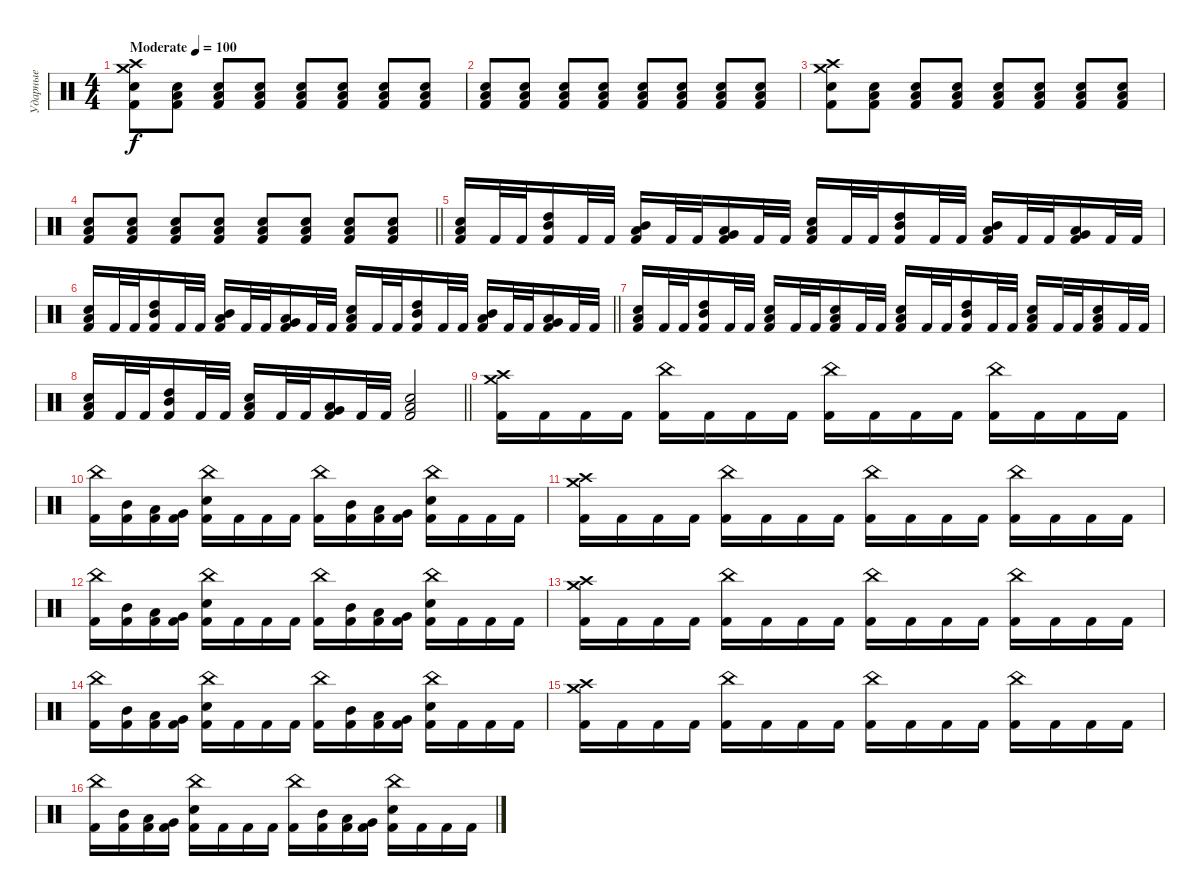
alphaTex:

\track ("Ударные" "Ударные") {instrument percussion}
\staff {score}
\articulation defaults
\ts (4 4)
\tempo (100 "Moderate")
\clef neutral
\ks c
("Crash medium (hit)" "Crash high (hit)" "Kick (hit) 2" "Electric Snare (hit)").8{dy f} ("Kick (hit) 2" "Low Floor Tom (hit)" "Electric Snare (hit)").8 ("Kick (hit) 2" "Low Floor Tom (hit)" "Electric Snare (hit)").8 ("Kick (hit) 2" "Low Floor Tom (hit)" "Electric Snare (hit)").8 ("Kick (hit) 2" "Low Floor Tom (hit)" "Electric Snare (hit)").8 ("Kick (hit) 2" "Low Floor Tom (hit)" "Electric Snare (hit)").8 ("Kick (hit) 2" "Low Floor Tom (hit)" "Electric Snare (hit)").8 ("Kick (hit) 2" "Low Floor Tom (hit)" "Electric Snare (hit)").8 |
("Kick (hit) 2" "Low Floor Tom (hit)" "Electric Snare (hit)").8 ("Kick (hit) 2" "Low Floor Tom (hit)" "Electric Snare (hit)").8 ("Kick (hit) 2" "Low Floor Tom (hit)" "Electric Snare (hit)").8 ("Kick (hit) 2" "Low Floor Tom (hit)" "Electric Snare (hit)").8 ("Kick (hit) 2" "Low Floor Tom (hit)" "Electric Snare (hit)").8 ("Kick (hit) 2" "Low Floor Tom (hit)" "Electric Snare (hit)").8 ("Kick (hit) 2" "Low Floor Tom (hit)" "Electric Snare (hit)").8 ("Kick (hit) 2" "Low Floor Tom (hit)" "Electric Snare (hit)").8 |
("Crash medium (hit)" "Crash high (hit)" "Kick (hit) 2" "Electric Snare (hit)").8 ("Kick (hit) 2" "Low Floor Tom (hit)" "Electric Snare (hit)").8 ("Kick (hit) 2" "Low Floor Tom (hit)" "Electric Snare (hit)").8 ("Kick (hit) 2" "Low Floor Tom (hit)" "Electric Snare (hit)").8 ("Kick (hit) 2" "Low Floor Tom (hit)" "Electric Snare (hit)").8 ("Kick (hit) 2" "Low Floor Tom (hit)" "Electric Snare (hit)").8 ("Kick (hit) 2" "Low Floor Tom (hit)" "Electric Snare (hit)").8 ("Kick (hit) 2" "Low Floor Tom (hit)" "Electric Snare (hit)").8 |
\barLineRight lightlight
("Kick (hit) 2" "Low Floor Tom (hit)" "Electric Snare (hit)").8 ("Kick (hit) 2" "Low Floor Tom (hit)" "Electric Snare (hit)").8 ("Kick (hit) 2" "Low Floor Tom (hit)" "Electric Snare (hit)").8 ("Kick (hit) 2" "Low Floor Tom (hit)" "Electric Snare (hit)").8 ("Kick (hit) 2" "Low Floor Tom (hit)" "Electric Snare (hit)").8 ("Kick (hit) 2" "Low Floor Tom (hit)" "Electric Snare (hit)").8 ("Kick (hit) 2" "Low Floor Tom (hit)" "Electric Snare (hit)").8 ("Kick (hit) 2" "Low Floor Tom (hit)" "Electric Snare (hit)").8 |
("Low Floor Tom (hit)" "Electric Snare (hit)" "Kick (hit) 2").16 "Kick (hit) 2".32 "Kick (hit) 2".32 ("High Tom (hit)" "Mid Tom (hit)" "Kick (hit) 2").16 "Kick (hit) 2".32 "Kick (hit) 2".32 ("Mid Tom (hit)" "Low Tom (hit)" "Kick (hit) 2").16 "Kick (hit) 2".32 "Kick (hit) 2".32 ("Very Low Tom (hit)" "Low Tom (hit)" "Kick (hit) 2").16 "Kick (hit) 2".32 "Kick (hit) 2".32 ("Low Floor Tom (hit)" "Electric Snare (hit)" "Kick (hit) 2").16 "Kick (hit) 2".32 "Kick (hit) 2".32 ("High Tom (hit)" "Mid Tom (hit)" "Kick (hit) 2").16 "Kick (hit) 2".32 "Kick (hit) 2".32 ("Mid Tom (hit)" "Low Tom (hit)" "Kick (hit) 2").16 "Kick (hit) 2".32 "Kick (hit) 2".32 ("Very Low Tom (hit)" "Low Tom (hit)" "Kick (hit) 2").16 "Kick (hit) 2".32 "Kick (hit) 2".32 |
\barLineRight lightlight
("Low Floor Tom (hit)" "Electric Snare (hit)" "Kick (hit) 2").16 "Kick (hit) 2".32 "Kick (hit) 2".32 ("High Tom (hit)" "Mid Tom (hit)" "Kick (hit) 2").16 "Kick (hit) 2".32 "Kick (hit) 2".32 ("Mid Tom (hit)" "Low Tom (hit)" "Kick (hit) 2").16 "Kick (hit) 2".32 "Kick (hit) 2".32 ("Very Low Tom (hit)" "Low Tom (hit)" "Kick (hit) 2").16 "Kick (hit) 2".32 "Kick (hit) 2".32 ("Low Floor Tom (hit)" "Electric Snare (hit)" "Kick (hit) 2").16 "Kick (hit) 2".32 "Kick (hit) 2".32 ("High Tom (hit)" "Mid Tom (hit)" "Kick (hit) 2").16 "Kick (hit) 2".32 "Kick (hit) 2".32 ("Mid Tom (hit)" "Low Tom (hit)" "Kick (hit) 2").16 "Kick (hit) 2".32 "Kick (hit) 2".32 ("Very Low Tom (hit)" "Low Tom (hit)" "Kick (hit) 2").16 "Kick (hit) 2".32 "Kick (hit) 2".32 |
("Low Floor Tom (hit)" "Electric Snare (hit)" "Kick (hit) 2").16 "Kick (hit) 2".32 "Kick (hit) 2".32 ("High Tom (hit)" "Mid Tom (hit)" "Kick (hit) 2").16 "Kick (hit) 2".32 "Kick (hit) 2".32 ("Low Floor Tom (hit)" "Electric Snare (hit)" "Kick (hit) 2").16 "Kick (hit) 2".32 "Kick (hit) 2".32 ("Low Floor Tom (hit)" "Electric Snare (hit)" "Kick (hit) 2").16 "Kick (hit) 2".32 "Kick (hit) 2".32 ("Low Floor Tom (hit)" "Electric Snare (hit)" "Kick (hit) 2").16 "Kick (hit) 2".32 "Kick (hit) 2".32 ("High Tom (hit)" "Mid Tom (hit)" "Kick (hit) 2").16 "Kick (hit) 2".32 "Kick (hit) 2".32 ("Low Floor Tom (hit)" "Electric Snare (hit)" "Kick (hit) 2").16 "Kick (hit) 2".32 "Kick (hit) 2".32 ("Low Floor Tom (hit)" "Electric Snare (hit)" "Kick (hit) 2").16 "Kick (hit) 2".32 "Kick (hit) 2".32 |
\barLineRight lightlight
("Low Floor Tom (hit)" "Electric Snare (hit)" "Kick (hit) 2").16 "Kick (hit) 2".32 "Kick (hit) 2".32 ("High Tom (hit)" "Mid Tom (hit)" "Kick (hit) 2").16 "Kick (hit) 2".32 "Kick (hit) 2".32 ("Low Floor Tom (hit)" "Electric Snare (hit)" "Kick (hit) 2").16 "Kick (hit) 2".32 "Kick (hit) 2".32 ("Very Low Tom (hit)" "Low Tom (hit)" "Kick (hit) 2").16 "Kick (hit) 2".32 "Kick (hit) 2".32 ("Low Floor Tom (hit)" "Electric Snare (hit)" "Kick (hit) 2").2 |
("Crash medium (hit)" "Crash high (hit)" "Kick (hit) 2").16 "Kick (hit) 2".16 "Kick (hit) 2".16 "Kick (hit) 2".16 ("China (hit)" "Kick (hit) 2").16 "Kick (hit) 2".16 "Kick (hit) 2".16 "Kick (hit) 2".16 ("China (hit)" "Kick (hit) 2").16 "Kick (hit) 2".16 "Kick (hit) 2".16 "Kick (hit) 2".16 ("China (hit)" "Kick (hit) 2").16 "Kick (hit) 2".16 "Kick (hit) 2".16 "Kick (hit) 2".16 |
("China (hit)" "Kick (hit) 2").16 ("Mid Tom (hit)" "Kick (hit) 2").16 ("Low Tom (hit)" "Kick (hit) 2").16 ("Very Low Tom (hit)" "Kick (hit) 2").16 ("China (hit)" "Electric Snare (hit)" "Kick (hit) 2").16 "Kick (hit) 2".16 "Kick (hit) 2".16 "Kick (hit) 2".16 ("China (hit)" "Kick (hit) 2").16 ("Mid Tom (hit)" "Kick (hit) 2").16 ("Low Tom (hit)" "Kick (hit) 2").16 ("Very Low Tom (hit)" "Kick (hit) 2").16 ("China (hit)" "Electric Snare (hit)" "Kick (hit) 2").16 "Kick (hit) 2".16 "Kick (hit) 2".16 "Kick (hit) 2".16 |
("Crash medium (hit)" "Crash high (hit)" "Kick (hit) 2").16 "Kick (hit) 2".16 "Kick (hit) 2".16 "Kick (hit) 2".16 ("China (hit)" "Kick (hit) 2").16 "Kick (hit) 2".16 "Kick (hit) 2".16 "Kick (hit) 2".16 ("China (hit)" "Kick (hit) 2").16 "Kick (hit) 2".16 "Kick (hit) 2".16 "Kick (hit) 2".16 ("China (hit)" "Kick (hit) 2").16 "Kick (hit) 2".16 "Kick (hit) 2".16 "Kick (hit) 2".16 |
("China (hit)" "Kick (hit) 2").16 ("Mid Tom (hit)" "Kick (hit) 2").16 ("Low Tom (hit)" "Kick (hit) 2").16 ("Very Low Tom (hit)" "Kick (hit) 2").16 ("China (hit)" "Electric Snare (hit)" "Kick (hit) 2").16 "Kick (hit) 2".16 "Kick (hit) 2".16 "Kick (hit) 2".16 ("China (hit)" "Kick (hit) 2").16 ("Mid Tom (hit)" "Kick (hit) 2").16 ("Low Tom (hit)" "Kick (hit) 2").16 ("Very Low Tom (hit)" "Kick (hit) 2").16 ("China (hit)" "Electric Snare (hit)" "Kick (hit) 2").16 "Kick (hit) 2".16 "Kick (hit) 2".16 "Kick (hit) 2".16 |
("Crash medium (hit)" "Crash high (hit)" "Kick (hit) 2").16 "Kick (hit) 2".16 "Kick (hit) 2".16 "Kick (hit) 2".16 ("China (hit)" "Kick (hit) 2").16 "Kick (hit) 2".16 "Kick (hit) 2".16 "Kick (hit) 2".16 ("China (hit)" "Kick (hit) 2").16 "Kick (hit) 2".16 "Kick (hit) 2".16 "Kick (hit) 2".16 ("China (hit)" "Kick (hit) 2").16 "Kick (hit) 2".16 "Kick (hit) 2".16 "Kick (hit) 2".16 |
("China (hit)" "Kick (hit) 2").16 ("Mid Tom (hit)" "Kick (hit) 2").16 ("Low Tom (hit)" "Kick (hit) 2").16 ("Very Low Tom (hit)" "Kick (hit) 2").16 ("China (hit)" "Electric Snare (hit)" "Kick (hit) 2").16 "Kick (hit) 2".16 "Kick (hit) 2".16 "Kick (hit) 2".16 ("China (hit)" "Kick (hit) 2").16 ("Mid Tom (hit)" "Kick (hit) 2").16 ("Low Tom (hit)" "Kick (hit) 2").16 ("Very Low Tom (hit)" "Kick (hit) 2").16 ("China (hit)" "Electric Snare (hit)" "Kick (hit) 2").16 "Kick (hit) 2".16 "Kick (hit) 2".16 "Kick (hit) 2".16 |
("Crash medium (hit)" "Crash high (hit)" "Kick (hit) 2").16 "Kick (hit) 2".16 "Kick (hit) 2".16 "Kick (hit) 2".16 ("China (hit)" "Kick (hit) 2").16 "Kick (hit) 2".16 "Kick (hit) 2".16 "Kick (hit) 2".16 ("China (hit)" "Kick (hit) 2").16 "Kick (hit) 2".16 "Kick (hit) 2".16 "Kick (hit) 2".16 ("China (hit)" "Kick (hit) 2").16 "Kick (hit) 2".16 "Kick (hit) 2".16 "Kick (hit) 2".16 |
("China (hit)" "Kick (hit) 2").16 ("Mid Tom (hit)" "Kick (hit) 2").16 ("Low Tom (hit)" "Kick (hit) 2").16 ("Very Low Tom (hit)" "Kick (hit) 2").16 ("China (hit)" "Electric Snare (hit)" "Kick (hit) 2").16 "Kick (hit) 2".16 "Kick (hit) 2".16 "Kick (hit) 2".16 ("China (hit)" "Kick (hit) 2").16 ("Mid Tom (hit)" "Kick (hit) 2").16 ("Low Tom (hit)" "Kick (hit) 2").16 ("Very Low Tom (hit)" "Kick (hit) 2").16 ("China (hit)" "Electric Snare (hit)" "Kick (hit) 2").16 "Kick (hit) 2".16 "Kick (hit) 2".16 "Kick (hit) 2".16
